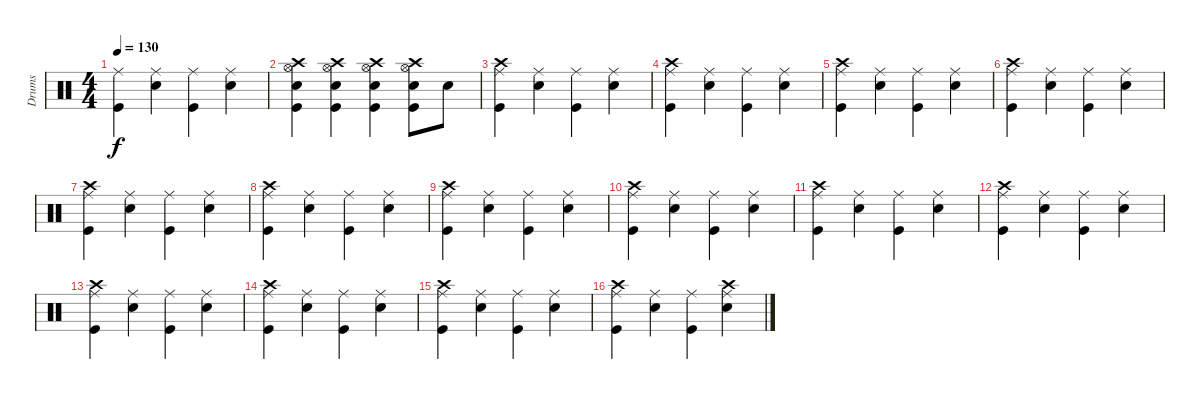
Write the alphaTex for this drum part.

\track ("Drums" "Drums") {instrument percussion}
\staff {score}
\articulation defaults
\ts (4 4)
\tempo 130
\clef neutral
\ks c
("Kick (hit)" "Ride (middle)").4{dy f} ("Snare (hit) 2" "Ride (middle)").4 ("Kick (hit)" "Ride (middle)").4 ("Snare (hit) 2" "Ride (middle)").4 |
("Kick (hit)" "Snare (hit) 2" "Crash high (hit)" "Hi-Hat (open)").4 ("Kick (hit)" "Snare (hit) 2" "Crash high (hit)" "Hi-Hat (open)").4 ("Kick (hit)" "Snare (hit) 2" "Crash high (hit)" "Hi-Hat (open)").4 ("Kick (hit)" "Snare (hit) 2" "Crash high (hit)" "Hi-Hat (open)").8 "Snare (hit) 2".8 |
("Kick (hit)" "Crash high (hit)" "Ride (middle)").4 ("Snare (hit) 2" "Ride (middle)").4 ("Kick (hit)" "Ride (middle)").4 ("Snare (hit) 2" "Ride (middle)").4 |
("Kick (hit)" "Crash high (hit)" "Ride (middle)").4 ("Snare (hit) 2" "Ride (middle)").4 ("Kick (hit)" "Ride (middle)").4 ("Snare (hit) 2" "Ride (middle)").4 |
("Kick (hit)" "Crash high (hit)" "Ride (middle)").4 ("Snare (hit) 2" "Ride (middle)").4 ("Kick (hit)" "Ride (middle)").4 ("Snare (hit) 2" "Ride (middle)").4 |
("Kick (hit)" "Crash high (hit)" "Ride (middle)").4 ("Snare (hit) 2" "Ride (middle)").4 ("Kick (hit)" "Ride (middle)").4 ("Snare (hit) 2" "Ride (middle)").4 |
("Kick (hit)" "Crash high (hit)" "Ride (middle)").4 ("Snare (hit) 2" "Ride (middle)").4 ("Kick (hit)" "Ride (middle)").4 ("Snare (hit) 2" "Ride (middle)").4 |
("Kick (hit)" "Crash high (hit)" "Ride (middle)").4 ("Snare (hit) 2" "Ride (middle)").4 ("Kick (hit)" "Ride (middle)").4 ("Snare (hit) 2" "Ride (middle)").4 |
("Kick (hit)" "Crash high (hit)" "Ride (middle)").4 ("Snare (hit) 2" "Ride (middle)").4 ("Kick (hit)" "Ride (middle)").4 ("Snare (hit) 2" "Ride (middle)").4 |
("Kick (hit)" "Crash high (hit)" "Ride (middle)").4 ("Snare (hit) 2" "Ride (middle)").4 ("Kick (hit)" "Ride (middle)").4 ("Snare (hit) 2" "Ride (middle)").4 |
("Kick (hit)" "Crash high (hit)" "Ride (middle)").4 ("Snare (hit) 2" "Ride (middle)").4 ("Kick (hit)" "Ride (middle)").4 ("Snare (hit) 2" "Ride (middle)").4 |
("Kick (hit)" "Crash high (hit)" "Ride (middle)").4 ("Snare (hit) 2" "Ride (middle)").4 ("Kick (hit)" "Ride (middle)").4 ("Snare (hit) 2" "Ride (middle)").4 |
("Kick (hit)" "Crash high (hit)" "Ride (middle)").4 ("Snare (hit) 2" "Ride (middle)").4 ("Kick (hit)" "Ride (middle)").4 ("Snare (hit) 2" "Ride (middle)").4 |
("Kick (hit)" "Crash high (hit)" "Ride (middle)").4 ("Snare (hit) 2" "Ride (middle)").4 ("Kick (hit)" "Ride (middle)").4 ("Snare (hit) 2" "Ride (middle)").4 |
("Kick (hit)" "Crash high (hit)" "Ride (middle)").4 ("Snare (hit) 2" "Ride (middle)").4 ("Kick (hit)" "Ride (middle)").4 ("Snare (hit) 2" "Ride (middle)").4 |
("Kick (hit)" "Crash high (hit)" "Ride (middle)").4 ("Snare (hit) 2" "Ride (middle)").4 ("Kick (hit)" "Ride (middle)").4 ("Snare (hit) 2" "Crash high (hit)" "Ride (middle)").4
